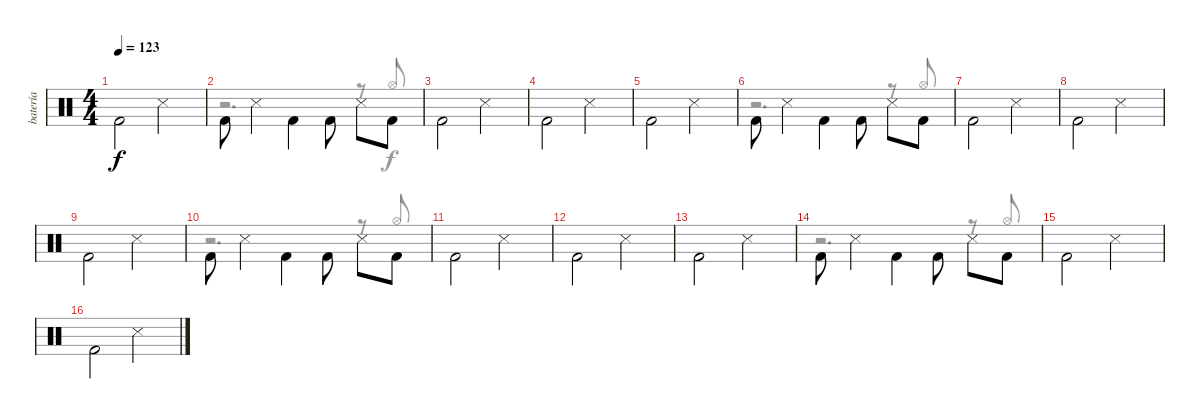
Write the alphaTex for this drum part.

\track ("batería" "batería") {instrument percussion}
\staff {score}
\articulation defaults
\voice
\ts (4 4)
\tempo 123
\clef neutral
\ks c "Kick (hit) 2".2{dy f beam Down} "Snare (side stick) 3".2{beam Down}
|
"Kick (hit) 2".8{beam Down} "Snare (side stick) 3".4{beam Down} "Kick (hit) 2".4{beam Down} "Kick (hit) 2".8{beam Down} "Snare (side stick) 3".8{beam Down} "Kick (hit) 2".8{beam Down} |
"Kick (hit) 2".2{beam Down} "Snare (side stick) 3".2{beam Down} |
"Kick (hit) 2".2{beam Down} "Snare (side stick) 3".2{beam Down} |
"Kick (hit) 2".2{beam Down} "Snare (side stick) 3".2{beam Down} |
"Kick (hit) 2".8{beam Down} "Snare (side stick) 3".4{beam Down} "Kick (hit) 2".4{beam Down} "Kick (hit) 2".8{beam Down} "Snare (side stick) 3".8{beam Down} "Kick (hit) 2".8{beam Down} |
"Kick (hit) 2".2{beam Down} "Snare (side stick) 3".2{beam Down} |
"Kick (hit) 2".2{beam Down} "Snare (side stick) 3".2{beam Down} |
"Kick (hit) 2".2{beam Down} "Snare (side stick) 3".2{beam Down} |
"Kick (hit) 2".8{beam Down} "Snare (side stick) 3".4{beam Down} "Kick (hit) 2".4{beam Down} "Kick (hit) 2".8{beam Down} "Snare (side stick) 3".8{beam Down} "Kick (hit) 2".8{beam Down} |
"Kick (hit) 2".2{beam Down} "Snare (side stick) 3".2{beam Down} |
"Kick (hit) 2".2{beam Down} "Snare (side stick) 3".2{beam Down} |
"Kick (hit) 2".2{beam Down} "Snare (side stick) 3".2{beam Down} |
"Kick (hit) 2".8{beam Down} "Snare (side stick) 3".4{beam Down} "Kick (hit) 2".4{beam Down} "Kick (hit) 2".8{beam Down} "Snare (side stick) 3".8{beam Down} "Kick (hit) 2".8{beam Down} |
"Kick (hit) 2".2{beam Down} "Snare (side stick) 3".2{beam Down} |
"Kick (hit) 2".2{beam Down} "Snare (side stick) 3".2{beam Down}
\voice
\clef neutral
\ottava regular
\simile none
\ks c
|
r.2{d} r.8 "Hi-Hat (open)".8{beam Up} |
|
|
|
r.2{d} r.8 "Hi-Hat (open)".8{beam Up} |
|
|
|
r.2{d} r.8 "Hi-Hat (open)".8{beam Up} |
|
|
|
r.2{d} r.8 "Hi-Hat (open)".8{beam Up} |
|
